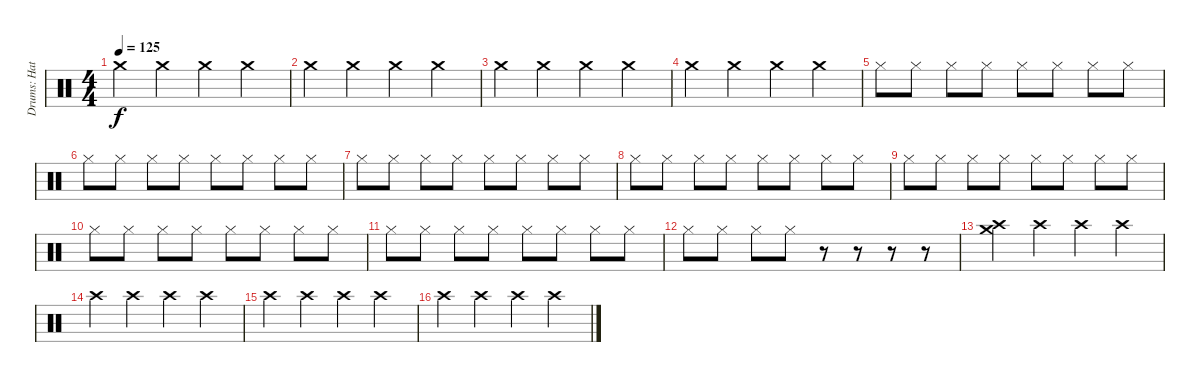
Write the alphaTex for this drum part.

\track ("Drums: Hats, Etc" "Drums: Hat") {instrument percussion}
\staff {score}
\articulation defaults
\ts (4 4)
\tempo 125
\clef neutral
\ks c "Crash medium (hit)".4{dy f} "Crash medium (hit)".4 "Crash medium (hit)".4 "Crash medium (hit)".4
|
"Crash medium (hit)".4 "Crash medium (hit)".4 "Crash medium (hit)".4 "Crash medium (hit)".4 |
"Crash medium (hit)".4 "Crash medium (hit)".4 "Crash medium (hit)".4 "Crash medium (hit)".4 |
"Crash medium (hit)".4 "Crash medium (hit)".4 "Crash medium (hit)".4 "Crash medium (hit)".4 |
"Hi-Hat (closed)".8 "Hi-Hat (closed)".8 "Hi-Hat (closed)".8 "Hi-Hat (closed)".8 "Hi-Hat (closed)".8 "Hi-Hat (closed)".8 "Hi-Hat (closed)".8 "Hi-Hat (closed)".8 |
"Hi-Hat (closed)".8 "Hi-Hat (closed)".8 "Hi-Hat (closed)".8 "Hi-Hat (closed)".8 "Hi-Hat (closed)".8 "Hi-Hat (closed)".8 "Hi-Hat (closed)".8 "Hi-Hat (closed)".8 |
"Hi-Hat (closed)".8 "Hi-Hat (closed)".8 "Hi-Hat (closed)".8 "Hi-Hat (closed)".8 "Hi-Hat (closed)".8 "Hi-Hat (closed)".8 "Hi-Hat (closed)".8 "Hi-Hat (closed)".8 |
"Hi-Hat (closed)".8 "Hi-Hat (closed)".8 "Hi-Hat (closed)".8 "Hi-Hat (closed)".8 "Hi-Hat (closed)".8 "Hi-Hat (closed)".8 "Hi-Hat (closed)".8 "Hi-Hat (closed)".8 |
"Hi-Hat (closed)".8 "Hi-Hat (closed)".8 "Hi-Hat (closed)".8 "Hi-Hat (closed)".8 "Hi-Hat (closed)".8 "Hi-Hat (closed)".8 "Hi-Hat (closed)".8 "Hi-Hat (closed)".8 |
"Hi-Hat (closed)".8 "Hi-Hat (closed)".8 "Hi-Hat (closed)".8 "Hi-Hat (closed)".8 "Hi-Hat (closed)".8 "Hi-Hat (closed)".8 "Hi-Hat (closed)".8 "Hi-Hat (closed)".8 |
"Hi-Hat (closed)".8 "Hi-Hat (closed)".8 "Hi-Hat (closed)".8 "Hi-Hat (closed)".8 "Hi-Hat (closed)".8 "Hi-Hat (closed)".8 "Hi-Hat (closed)".8 "Hi-Hat (closed)".8 |
"Hi-Hat (closed)".8 "Hi-Hat (closed)".8 "Hi-Hat (closed)".8 "Hi-Hat (closed)".8 r.8 r.8 r.8 r.8 |
("Crash medium (hit)" "Crash high (hit)").4 "Crash high (hit)".4 "Crash high (hit)".4 "Crash high (hit)".4 |
"Crash high (hit)".4 "Crash high (hit)".4 "Crash high (hit)".4 "Crash high (hit)".4 |
"Crash high (hit)".4 "Crash high (hit)".4 "Crash high (hit)".4 "Crash high (hit)".4 |
"Crash high (hit)".4 "Crash high (hit)".4 "Crash high (hit)".4 "Crash high (hit)".4
